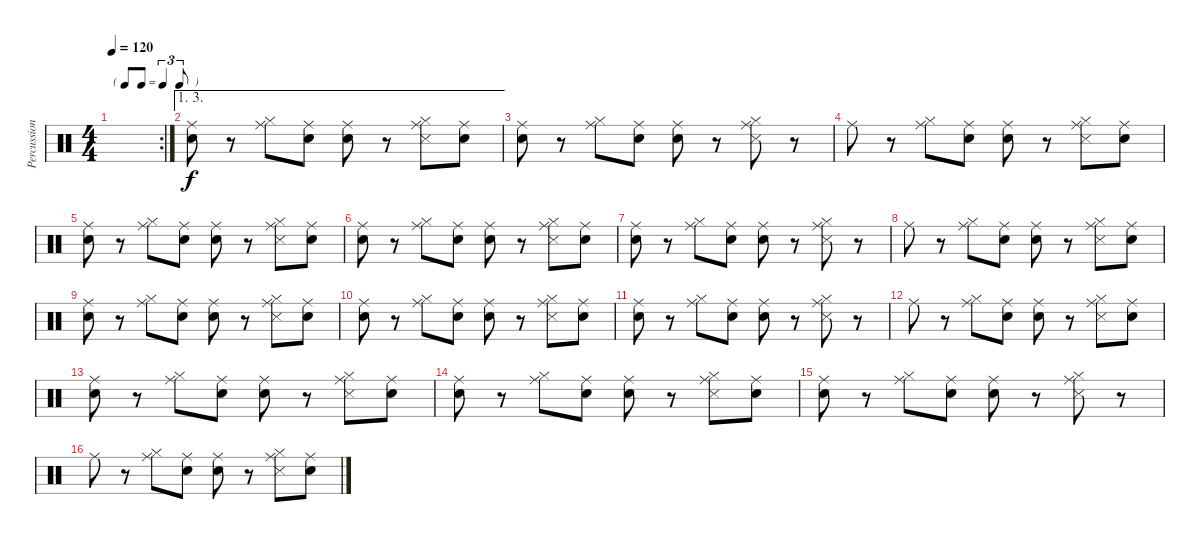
\track ("Percussions" "Percussion") {instrument percussion}
\staff {score}
\articulation defaults
\rc 2
\ts (4 4)
\tf triplet8th
\tempo 120
\clef neutral
\ks c
|
\ae (1 3)
("Snare (hit)" "Ride (middle)").8 r.8 ("Hi-Hat (closed)" "Ride (middle)").8 ("Snare (hit)" "Ride (middle)").8 ("Snare (hit)" "Ride (middle)").8 r.8 ("Hi-Hat (closed)" "Snare (side stick) 3" "Ride (middle)").8 ("Snare (hit)" "Ride (middle)").8 |
("Snare (hit)" "Ride (middle)").8 r.8 ("Hi-Hat (closed)" "Ride (middle)").8 ("Snare (hit)" "Ride (middle)").8 ("Snare (hit)" "Ride (middle)").8 r.8 ("Hi-Hat (closed)" "Snare (side stick) 3" "Ride (middle)").8 r.8 |
"Ride (middle)".8 r.8 ("Hi-Hat (closed)" "Ride (middle)").8 ("Snare (hit)" "Ride (middle)").8 ("Snare (hit)" "Ride (middle)").8 r.8 ("Hi-Hat (closed)" "Snare (side stick) 3" "Ride (middle)").8 ("Snare (hit)" "Ride (middle)").8 |
("Snare (hit)" "Ride (middle)").8 r.8 ("Hi-Hat (closed)" "Ride (middle)").8 ("Snare (hit)" "Ride (middle)").8 ("Snare (hit)" "Ride (middle)").8 r.8 ("Hi-Hat (closed)" "Snare (side stick) 3" "Ride (middle)").8 ("Snare (hit)" "Ride (middle)").8 |
("Snare (hit)" "Ride (middle)").8 r.8 ("Hi-Hat (closed)" "Ride (middle)").8 ("Snare (hit)" "Ride (middle)").8 ("Snare (hit)" "Ride (middle)").8 r.8 ("Hi-Hat (closed)" "Snare (side stick) 3" "Ride (middle)").8 ("Snare (hit)" "Ride (middle)").8 |
("Snare (hit)" "Ride (middle)").8 r.8 ("Hi-Hat (closed)" "Ride (middle)").8 ("Snare (hit)" "Ride (middle)").8 ("Snare (hit)" "Ride (middle)").8 r.8 ("Hi-Hat (closed)" "Snare (side stick) 3" "Ride (middle)").8 r.8 |
"Ride (middle)".8 r.8 ("Hi-Hat (closed)" "Ride (middle)").8 ("Snare (hit)" "Ride (middle)").8 ("Snare (hit)" "Ride (middle)").8 r.8 ("Hi-Hat (closed)" "Snare (side stick) 3" "Ride (middle)").8 ("Snare (hit)" "Ride (middle)").8 |
("Snare (hit)" "Ride (middle)").8 r.8 ("Hi-Hat (closed)" "Ride (middle)").8 ("Snare (hit)" "Ride (middle)").8 ("Snare (hit)" "Ride (middle)").8 r.8 ("Hi-Hat (closed)" "Snare (side stick) 3" "Ride (middle)").8 ("Snare (hit)" "Ride (middle)").8 |
("Snare (hit)" "Ride (middle)").8 r.8 ("Hi-Hat (closed)" "Ride (middle)").8 ("Snare (hit)" "Ride (middle)").8 ("Snare (hit)" "Ride (middle)").8 r.8 ("Hi-Hat (closed)" "Snare (side stick) 3" "Ride (middle)").8 ("Snare (hit)" "Ride (middle)").8 |
("Snare (hit)" "Ride (middle)").8 r.8 ("Hi-Hat (closed)" "Ride (middle)").8 ("Snare (hit)" "Ride (middle)").8 ("Snare (hit)" "Ride (middle)").8 r.8 ("Hi-Hat (closed)" "Snare (side stick) 3" "Ride (middle)").8 r.8 |
"Ride (middle)".8 r.8 ("Hi-Hat (closed)" "Ride (middle)").8 ("Snare (hit)" "Ride (middle)").8 ("Snare (hit)" "Ride (middle)").8 r.8 ("Hi-Hat (closed)" "Snare (side stick) 3" "Ride (middle)").8 ("Snare (hit)" "Ride (middle)").8 |
("Snare (hit)" "Ride (middle)").8 r.8 ("Hi-Hat (closed)" "Ride (middle)").8 ("Snare (hit)" "Ride (middle)").8 ("Snare (hit)" "Ride (middle)").8 r.8 ("Hi-Hat (closed)" "Snare (side stick) 3" "Ride (middle)").8 ("Snare (hit)" "Ride (middle)").8 |
("Snare (hit)" "Ride (middle)").8 r.8 ("Hi-Hat (closed)" "Ride (middle)").8 ("Snare (hit)" "Ride (middle)").8 ("Snare (hit)" "Ride (middle)").8 r.8 ("Hi-Hat (closed)" "Snare (side stick) 3" "Ride (middle)").8 ("Snare (hit)" "Ride (middle)").8 |
("Snare (hit)" "Ride (middle)").8 r.8 ("Hi-Hat (closed)" "Ride (middle)").8 ("Snare (hit)" "Ride (middle)").8 ("Snare (hit)" "Ride (middle)").8 r.8 ("Hi-Hat (closed)" "Snare (side stick) 3" "Ride (middle)").8 r.8 |
"Ride (middle)".8 r.8 ("Hi-Hat (closed)" "Ride (middle)").8 ("Snare (hit)" "Ride (middle)").8 ("Snare (hit)" "Ride (middle)").8 r.8 ("Hi-Hat (closed)" "Snare (side stick) 3" "Ride (middle)").8 ("Snare (hit)" "Ride (middle)").8
